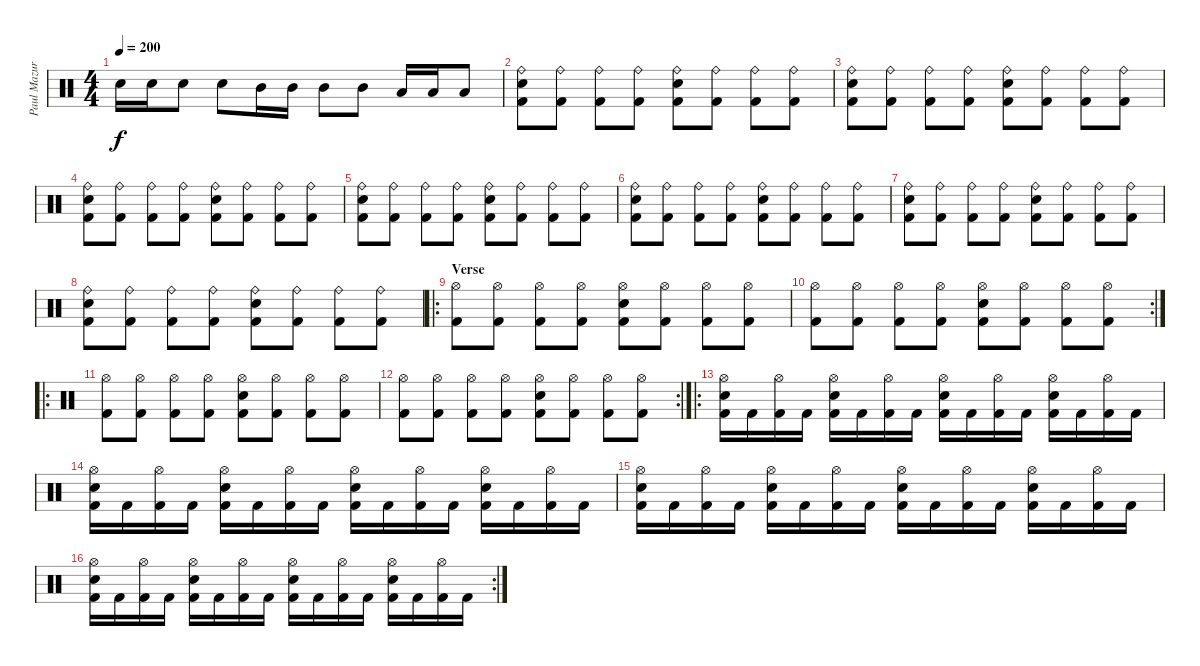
\track ("Paul Mazurkiewicz" "Paul Mazur") {instrument percussion}
\staff {score}
\articulation defaults
\ts (4 4)
\tempo 200
\clef neutral
\ks c "Snare (hit) 2".16{dy f} "Snare (hit) 2".16 "Snare (hit) 2".8 "Snare (hit) 2".8 "Mid Tom (hit)".16 "Mid Tom (hit)".16 "Mid Tom (hit)".8 "Mid Tom (hit)".8 "Low Tom (hit)".16 "Low Tom (hit)".16 "Low Tom (hit)".8
|
("Ride (bell)" "Snare (hit) 2" "Kick (hit) 2").8 ("Ride (bell)" "Kick (hit) 2").8 ("Ride (bell)" "Kick (hit) 2").8 ("Ride (bell)" "Kick (hit) 2").8 ("Ride (bell)" "Snare (hit) 2" "Kick (hit) 2").8 ("Ride (bell)" "Kick (hit) 2").8 ("Ride (bell)" "Kick (hit) 2").8 ("Ride (bell)" "Kick (hit) 2").8 |
("Ride (bell)" "Snare (hit) 2" "Kick (hit) 2").8 ("Ride (bell)" "Kick (hit) 2").8 ("Ride (bell)" "Kick (hit) 2").8 ("Ride (bell)" "Kick (hit) 2").8 ("Ride (bell)" "Snare (hit) 2" "Kick (hit) 2").8 ("Ride (bell)" "Kick (hit) 2").8 ("Ride (bell)" "Kick (hit) 2").8 ("Ride (bell)" "Kick (hit) 2").8 |
("Ride (bell)" "Snare (hit) 2" "Kick (hit) 2").8 ("Ride (bell)" "Kick (hit) 2").8 ("Ride (bell)" "Kick (hit) 2").8 ("Ride (bell)" "Kick (hit) 2").8 ("Ride (bell)" "Snare (hit) 2" "Kick (hit) 2").8 ("Ride (bell)" "Kick (hit) 2").8 ("Ride (bell)" "Kick (hit) 2").8 ("Ride (bell)" "Kick (hit) 2").8 |
("Ride (bell)" "Snare (hit) 2" "Kick (hit) 2").8 ("Ride (bell)" "Kick (hit) 2").8 ("Ride (bell)" "Kick (hit) 2").8 ("Ride (bell)" "Kick (hit) 2").8 ("Ride (bell)" "Snare (hit) 2" "Kick (hit) 2").8 ("Ride (bell)" "Kick (hit) 2").8 ("Ride (bell)" "Kick (hit) 2").8 ("Ride (bell)" "Kick (hit) 2").8 |
("Ride (bell)" "Snare (hit) 2" "Kick (hit) 2").8 ("Ride (bell)" "Kick (hit) 2").8 ("Ride (bell)" "Kick (hit) 2").8 ("Ride (bell)" "Kick (hit) 2").8 ("Ride (bell)" "Snare (hit) 2" "Kick (hit) 2").8 ("Ride (bell)" "Kick (hit) 2").8 ("Ride (bell)" "Kick (hit) 2").8 ("Ride (bell)" "Kick (hit) 2").8 |
("Ride (bell)" "Snare (hit) 2" "Kick (hit) 2").8 ("Ride (bell)" "Kick (hit) 2").8 ("Ride (bell)" "Kick (hit) 2").8 ("Ride (bell)" "Kick (hit) 2").8 ("Ride (bell)" "Snare (hit) 2" "Kick (hit) 2").8 ("Ride (bell)" "Kick (hit) 2").8 ("Ride (bell)" "Kick (hit) 2").8 ("Ride (bell)" "Kick (hit) 2").8 |
("Ride (bell)" "Snare (hit) 2" "Kick (hit) 2").8 ("Ride (bell)" "Kick (hit) 2").8 ("Ride (bell)" "Kick (hit) 2").8 ("Ride (bell)" "Kick (hit) 2").8 ("Ride (bell)" "Snare (hit) 2" "Kick (hit) 2").8 ("Ride (bell)" "Kick (hit) 2").8 ("Ride (bell)" "Kick (hit) 2").8 ("Ride (bell)" "Kick (hit) 2").8 |
\ro
\section ("" "Verse")
("Hi-Hat (open)" "Kick (hit) 2").8 ("Hi-Hat (open)" "Kick (hit) 2").8 ("Hi-Hat (open)" "Kick (hit) 2").8 ("Hi-Hat (open)" "Kick (hit) 2").8 ("Hi-Hat (open)" "Snare (hit) 2" "Kick (hit) 2").8 ("Hi-Hat (open)" "Kick (hit) 2").8 ("Hi-Hat (open)" "Kick (hit) 2").8 ("Hi-Hat (open)" "Kick (hit) 2").8 |
\rc 2
("Hi-Hat (open)" "Kick (hit) 2").8 ("Hi-Hat (open)" "Kick (hit) 2").8 ("Hi-Hat (open)" "Kick (hit) 2").8 ("Hi-Hat (open)" "Kick (hit) 2").8 ("Hi-Hat (open)" "Snare (hit) 2" "Kick (hit) 2").8 ("Hi-Hat (open)" "Kick (hit) 2").8 ("Hi-Hat (open)" "Kick (hit) 2").8 ("Hi-Hat (open)" "Kick (hit) 2").8 |
\ro
("Hi-Hat (open)" "Kick (hit) 2").8 ("Hi-Hat (open)" "Kick (hit) 2").8 ("Hi-Hat (open)" "Kick (hit) 2").8 ("Hi-Hat (open)" "Kick (hit) 2").8 ("Hi-Hat (open)" "Snare (hit) 2" "Kick (hit) 2").8 ("Hi-Hat (open)" "Kick (hit) 2").8 ("Hi-Hat (open)" "Kick (hit) 2").8 ("Hi-Hat (open)" "Kick (hit) 2").8 |
\rc 2
("Hi-Hat (open)" "Kick (hit) 2").8 ("Hi-Hat (open)" "Kick (hit) 2").8 ("Hi-Hat (open)" "Kick (hit) 2").8 ("Hi-Hat (open)" "Kick (hit) 2").8 ("Hi-Hat (open)" "Snare (hit) 2" "Kick (hit) 2").8 ("Hi-Hat (open)" "Kick (hit) 2").8 ("Hi-Hat (open)" "Kick (hit) 2").8 ("Hi-Hat (open)" "Kick (hit) 2").8 |
\ro
("Hi-Hat (open)" "Snare (hit) 2" "Kick (hit) 2").16 "Kick (hit) 2".16 ("Hi-Hat (open)" "Kick (hit) 2").16 "Kick (hit) 2".16 ("Hi-Hat (open)" "Snare (hit) 2" "Kick (hit) 2").16 "Kick (hit) 2".16 ("Hi-Hat (open)" "Kick (hit) 2").16 "Kick (hit) 2".16 ("Hi-Hat (open)" "Snare (hit) 2" "Kick (hit) 2").16 "Kick (hit) 2".16 ("Hi-Hat (open)" "Kick (hit) 2").16 "Kick (hit) 2".16 ("Hi-Hat (open)" "Snare (hit) 2" "Kick (hit) 2").16 "Kick (hit) 2".16 ("Hi-Hat (open)" "Kick (hit) 2").16 "Kick (hit) 2".16 |
("Hi-Hat (open)" "Snare (hit) 2" "Kick (hit) 2").16 "Kick (hit) 2".16 ("Hi-Hat (open)" "Kick (hit) 2").16 "Kick (hit) 2".16 ("Hi-Hat (open)" "Snare (hit) 2" "Kick (hit) 2").16 "Kick (hit) 2".16 ("Hi-Hat (open)" "Kick (hit) 2").16 "Kick (hit) 2".16 ("Hi-Hat (open)" "Snare (hit) 2" "Kick (hit) 2").16 "Kick (hit) 2".16 ("Hi-Hat (open)" "Kick (hit) 2").16 "Kick (hit) 2".16 ("Hi-Hat (open)" "Snare (hit) 2" "Kick (hit) 2").16 "Kick (hit) 2".16 ("Hi-Hat (open)" "Kick (hit) 2").16 "Kick (hit) 2".16 |
("Hi-Hat (open)" "Snare (hit) 2" "Kick (hit) 2").16 "Kick (hit) 2".16 ("Hi-Hat (open)" "Kick (hit) 2").16 "Kick (hit) 2".16 ("Hi-Hat (open)" "Snare (hit) 2" "Kick (hit) 2").16 "Kick (hit) 2".16 ("Hi-Hat (open)" "Kick (hit) 2").16 "Kick (hit) 2".16 ("Hi-Hat (open)" "Snare (hit) 2" "Kick (hit) 2").16 "Kick (hit) 2".16 ("Hi-Hat (open)" "Kick (hit) 2").16 "Kick (hit) 2".16 ("Hi-Hat (open)" "Snare (hit) 2" "Kick (hit) 2").16 "Kick (hit) 2".16 ("Hi-Hat (open)" "Kick (hit) 2").16 "Kick (hit) 2".16 |
\rc 2
("Hi-Hat (open)" "Snare (hit) 2" "Kick (hit) 2").16 "Kick (hit) 2".16 ("Hi-Hat (open)" "Kick (hit) 2").16 "Kick (hit) 2".16 ("Hi-Hat (open)" "Snare (hit) 2" "Kick (hit) 2").16 "Kick (hit) 2".16 ("Hi-Hat (open)" "Kick (hit) 2").16 "Kick (hit) 2".16 ("Hi-Hat (open)" "Snare (hit) 2" "Kick (hit) 2").16 "Kick (hit) 2".16 ("Hi-Hat (open)" "Kick (hit) 2").16 "Kick (hit) 2".16 ("Hi-Hat (open)" "Snare (hit) 2" "Kick (hit) 2").16 "Kick (hit) 2".16 ("Hi-Hat (open)" "Kick (hit) 2").16 "Kick (hit) 2".16
